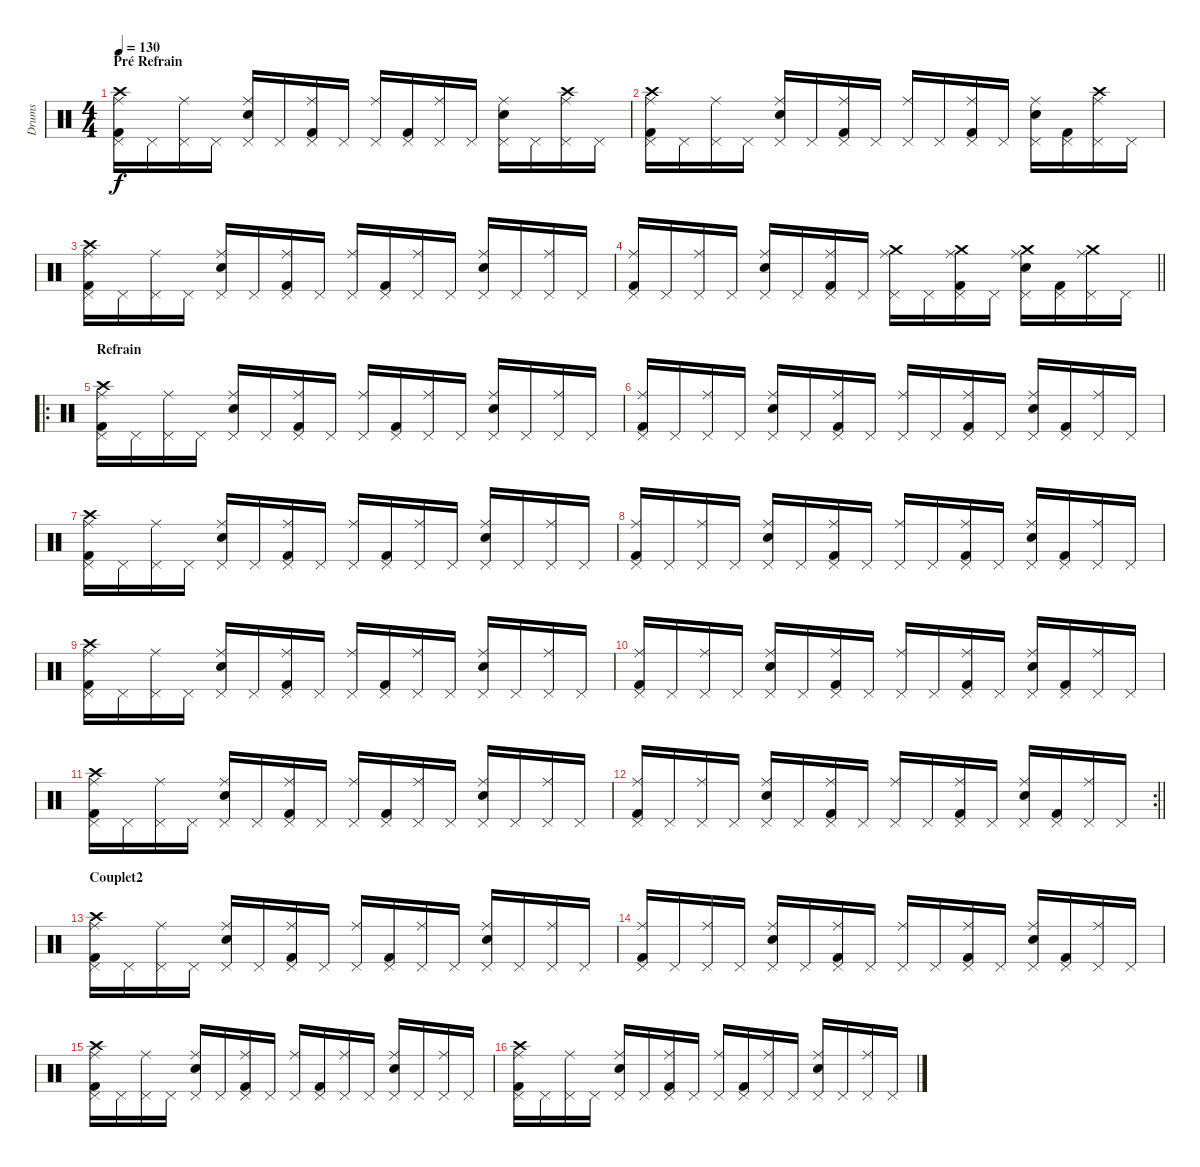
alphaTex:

\track ("Drums" "Drums") {instrument percussion}
\staff {score}
\articulation defaults
\ts (4 4)
\section ("" "Pré Refrain")
\tempo 130
\clef neutral
\ks c
("Crash high (hit)" "Pedal Hi-Hat (hit)" "Ride (middle)" "Kick (hit) 2").16{dy f} "Pedal Hi-Hat (hit)".16 ("Pedal Hi-Hat (hit)" "Ride (middle)").16 "Pedal Hi-Hat (hit)".16 ("Pedal Hi-Hat (hit)" "Ride (middle)" "Electric Snare (hit)").16 "Pedal Hi-Hat (hit)".16 ("Pedal Hi-Hat (hit)" "Ride (middle)" "Kick (hit) 2").16 "Pedal Hi-Hat (hit)".16 ("Pedal Hi-Hat (hit)" "Ride (middle)").16 ("Pedal Hi-Hat (hit)" "Kick (hit) 2").16 ("Pedal Hi-Hat (hit)" "Ride (middle)").16 "Pedal Hi-Hat (hit)".16 ("Pedal Hi-Hat (hit)" "Ride (middle)" "Electric Snare (hit)").16 "Pedal Hi-Hat (hit)".16 ("Crash high (hit)" "Pedal Hi-Hat (hit)" "Ride (middle)").16 "Pedal Hi-Hat (hit)".16 |
("Crash high (hit)" "Ride (middle)" "Pedal Hi-Hat (hit)" "Kick (hit) 2").16 "Pedal Hi-Hat (hit)".16 ("Ride (middle)" "Pedal Hi-Hat (hit)").16 "Pedal Hi-Hat (hit)".16 ("Ride (middle)" "Pedal Hi-Hat (hit)" "Electric Snare (hit)").16 "Pedal Hi-Hat (hit)".16 ("Ride (middle)" "Pedal Hi-Hat (hit)" "Kick (hit) 2").16 "Pedal Hi-Hat (hit)".16 ("Ride (middle)" "Pedal Hi-Hat (hit)").16 "Pedal Hi-Hat (hit)".16 ("Ride (middle)" "Pedal Hi-Hat (hit)" "Kick (hit) 2").16 "Pedal Hi-Hat (hit)".16 ("Ride (middle)" "Pedal Hi-Hat (hit)" "Electric Snare (hit)").16 ("Pedal Hi-Hat (hit)" "Kick (hit) 2").16 ("Crash high (hit)" "Ride (middle)" "Pedal Hi-Hat (hit)").16 "Pedal Hi-Hat (hit)".16 |
("Crash high (hit)" "Pedal Hi-Hat (hit)" "Ride (middle)" "Kick (hit) 2").16 "Pedal Hi-Hat (hit)".16 ("Pedal Hi-Hat (hit)" "Ride (middle)").16 "Pedal Hi-Hat (hit)".16 ("Pedal Hi-Hat (hit)" "Ride (middle)" "Electric Snare (hit)").16 "Pedal Hi-Hat (hit)".16 ("Pedal Hi-Hat (hit)" "Ride (middle)" "Kick (hit) 2").16 "Pedal Hi-Hat (hit)".16 ("Pedal Hi-Hat (hit)" "Ride (middle)").16 ("Pedal Hi-Hat (hit)" "Kick (hit) 2").16 ("Pedal Hi-Hat (hit)" "Ride (middle)").16 "Pedal Hi-Hat (hit)".16 ("Pedal Hi-Hat (hit)" "Ride (middle)" "Electric Snare (hit)").16 "Pedal Hi-Hat (hit)".16 ("Pedal Hi-Hat (hit)" "Ride (middle)").16 "Pedal Hi-Hat (hit)".16 |
\barLineRight lightlight
("Ride (middle)" "Pedal Hi-Hat (hit)" "Kick (hit) 2").16 "Pedal Hi-Hat (hit)".16 ("Ride (middle)" "Pedal Hi-Hat (hit)").16 "Pedal Hi-Hat (hit)".16 ("Ride (middle)" "Pedal Hi-Hat (hit)" "Electric Snare (hit)").16 "Pedal Hi-Hat (hit)".16 ("Ride (middle)" "Pedal Hi-Hat (hit)" "Kick (hit) 2").16 "Pedal Hi-Hat (hit)".16 ("Crash medium (hit)" "Ride (middle)" "Pedal Hi-Hat (hit)").16 "Pedal Hi-Hat (hit)".16 ("Crash medium (hit)" "Ride (middle)" "Pedal Hi-Hat (hit)" "Kick (hit) 2").16 "Pedal Hi-Hat (hit)".16 ("Crash medium (hit)" "Ride (middle)" "Pedal Hi-Hat (hit)" "Electric Snare (hit)").16 ("Pedal Hi-Hat (hit)" "Kick (hit) 2").16 ("Crash medium (hit)" "Ride (middle)" "Pedal Hi-Hat (hit)").16 "Pedal Hi-Hat (hit)".16 |
\ro
\section ("" "Refrain")
("Crash high (hit)" "Pedal Hi-Hat (hit)" "Ride (middle)" "Kick (hit) 2").16 "Pedal Hi-Hat (hit)".16 ("Pedal Hi-Hat (hit)" "Ride (middle)").16 "Pedal Hi-Hat (hit)".16 ("Pedal Hi-Hat (hit)" "Ride (middle)" "Electric Snare (hit)").16 "Pedal Hi-Hat (hit)".16 ("Pedal Hi-Hat (hit)" "Ride (middle)" "Kick (hit) 2").16 "Pedal Hi-Hat (hit)".16 ("Pedal Hi-Hat (hit)" "Ride (middle)").16 ("Pedal Hi-Hat (hit)" "Kick (hit) 2").16 ("Pedal Hi-Hat (hit)" "Ride (middle)").16 "Pedal Hi-Hat (hit)".16 ("Pedal Hi-Hat (hit)" "Ride (middle)" "Electric Snare (hit)").16 "Pedal Hi-Hat (hit)".16 ("Pedal Hi-Hat (hit)" "Ride (middle)").16 "Pedal Hi-Hat (hit)".16 |
("Ride (middle)" "Pedal Hi-Hat (hit)" "Kick (hit) 2").16 "Pedal Hi-Hat (hit)".16 ("Ride (middle)" "Pedal Hi-Hat (hit)").16 "Pedal Hi-Hat (hit)".16 ("Ride (middle)" "Pedal Hi-Hat (hit)" "Electric Snare (hit)").16 "Pedal Hi-Hat (hit)".16 ("Ride (middle)" "Pedal Hi-Hat (hit)" "Kick (hit) 2").16 "Pedal Hi-Hat (hit)".16 ("Ride (middle)" "Pedal Hi-Hat (hit)").16 "Pedal Hi-Hat (hit)".16 ("Ride (middle)" "Pedal Hi-Hat (hit)" "Kick (hit) 2").16 "Pedal Hi-Hat (hit)".16 ("Ride (middle)" "Pedal Hi-Hat (hit)" "Electric Snare (hit)").16 ("Pedal Hi-Hat (hit)" "Kick (hit) 2").16 ("Ride (middle)" "Pedal Hi-Hat (hit)").16 "Pedal Hi-Hat (hit)".16 |
("Crash high (hit)" "Pedal Hi-Hat (hit)" "Ride (middle)" "Kick (hit) 2").16 "Pedal Hi-Hat (hit)".16 ("Pedal Hi-Hat (hit)" "Ride (middle)").16 "Pedal Hi-Hat (hit)".16 ("Pedal Hi-Hat (hit)" "Ride (middle)" "Electric Snare (hit)").16 "Pedal Hi-Hat (hit)".16 ("Pedal Hi-Hat (hit)" "Ride (middle)" "Kick (hit) 2").16 "Pedal Hi-Hat (hit)".16 ("Pedal Hi-Hat (hit)" "Ride (middle)").16 ("Pedal Hi-Hat (hit)" "Kick (hit) 2").16 ("Pedal Hi-Hat (hit)" "Ride (middle)").16 "Pedal Hi-Hat (hit)".16 ("Pedal Hi-Hat (hit)" "Ride (middle)" "Electric Snare (hit)").16 "Pedal Hi-Hat (hit)".16 ("Pedal Hi-Hat (hit)" "Ride (middle)").16 "Pedal Hi-Hat (hit)".16 |
("Ride (middle)" "Pedal Hi-Hat (hit)" "Kick (hit) 2").16 "Pedal Hi-Hat (hit)".16 ("Ride (middle)" "Pedal Hi-Hat (hit)").16 "Pedal Hi-Hat (hit)".16 ("Ride (middle)" "Pedal Hi-Hat (hit)" "Electric Snare (hit)").16 "Pedal Hi-Hat (hit)".16 ("Ride (middle)" "Pedal Hi-Hat (hit)" "Kick (hit) 2").16 "Pedal Hi-Hat (hit)".16 ("Ride (middle)" "Pedal Hi-Hat (hit)").16 "Pedal Hi-Hat (hit)".16 ("Ride (middle)" "Pedal Hi-Hat (hit)" "Kick (hit) 2").16 "Pedal Hi-Hat (hit)".16 ("Ride (middle)" "Pedal Hi-Hat (hit)" "Electric Snare (hit)").16 ("Pedal Hi-Hat (hit)" "Kick (hit) 2").16 ("Ride (middle)" "Pedal Hi-Hat (hit)").16 "Pedal Hi-Hat (hit)".16 |
("Crash high (hit)" "Pedal Hi-Hat (hit)" "Ride (middle)" "Kick (hit) 2").16 "Pedal Hi-Hat (hit)".16 ("Pedal Hi-Hat (hit)" "Ride (middle)").16 "Pedal Hi-Hat (hit)".16 ("Pedal Hi-Hat (hit)" "Ride (middle)" "Electric Snare (hit)").16 "Pedal Hi-Hat (hit)".16 ("Pedal Hi-Hat (hit)" "Ride (middle)" "Kick (hit) 2").16 "Pedal Hi-Hat (hit)".16 ("Pedal Hi-Hat (hit)" "Ride (middle)").16 ("Pedal Hi-Hat (hit)" "Kick (hit) 2").16 ("Pedal Hi-Hat (hit)" "Ride (middle)").16 "Pedal Hi-Hat (hit)".16 ("Pedal Hi-Hat (hit)" "Ride (middle)" "Electric Snare (hit)").16 "Pedal Hi-Hat (hit)".16 ("Pedal Hi-Hat (hit)" "Ride (middle)").16 "Pedal Hi-Hat (hit)".16 |
("Ride (middle)" "Pedal Hi-Hat (hit)" "Kick (hit) 2").16 "Pedal Hi-Hat (hit)".16 ("Ride (middle)" "Pedal Hi-Hat (hit)").16 "Pedal Hi-Hat (hit)".16 ("Ride (middle)" "Pedal Hi-Hat (hit)" "Electric Snare (hit)").16 "Pedal Hi-Hat (hit)".16 ("Ride (middle)" "Pedal Hi-Hat (hit)" "Kick (hit) 2").16 "Pedal Hi-Hat (hit)".16 ("Ride (middle)" "Pedal Hi-Hat (hit)").16 "Pedal Hi-Hat (hit)".16 ("Ride (middle)" "Pedal Hi-Hat (hit)" "Kick (hit) 2").16 "Pedal Hi-Hat (hit)".16 ("Ride (middle)" "Pedal Hi-Hat (hit)" "Electric Snare (hit)").16 ("Pedal Hi-Hat (hit)" "Kick (hit) 2").16 ("Ride (middle)" "Pedal Hi-Hat (hit)").16 "Pedal Hi-Hat (hit)".16 |
("Crash high (hit)" "Pedal Hi-Hat (hit)" "Ride (middle)" "Kick (hit) 2").16 "Pedal Hi-Hat (hit)".16 ("Pedal Hi-Hat (hit)" "Ride (middle)").16 "Pedal Hi-Hat (hit)".16 ("Pedal Hi-Hat (hit)" "Ride (middle)" "Electric Snare (hit)").16 "Pedal Hi-Hat (hit)".16 ("Pedal Hi-Hat (hit)" "Ride (middle)" "Kick (hit) 2").16 "Pedal Hi-Hat (hit)".16 ("Pedal Hi-Hat (hit)" "Ride (middle)").16 ("Pedal Hi-Hat (hit)" "Kick (hit) 2").16 ("Pedal Hi-Hat (hit)" "Ride (middle)").16 "Pedal Hi-Hat (hit)".16 ("Pedal Hi-Hat (hit)" "Ride (middle)" "Electric Snare (hit)").16 "Pedal Hi-Hat (hit)".16 ("Pedal Hi-Hat (hit)" "Ride (middle)").16 "Pedal Hi-Hat (hit)".16 |
\rc 2
\barLineRight lightlight
("Ride (middle)" "Pedal Hi-Hat (hit)" "Kick (hit) 2").16 "Pedal Hi-Hat (hit)".16 ("Ride (middle)" "Pedal Hi-Hat (hit)").16 "Pedal Hi-Hat (hit)".16 ("Ride (middle)" "Pedal Hi-Hat (hit)" "Electric Snare (hit)").16 "Pedal Hi-Hat (hit)".16 ("Ride (middle)" "Pedal Hi-Hat (hit)" "Kick (hit) 2").16 "Pedal Hi-Hat (hit)".16 ("Ride (middle)" "Pedal Hi-Hat (hit)").16 "Pedal Hi-Hat (hit)".16 ("Ride (middle)" "Pedal Hi-Hat (hit)" "Kick (hit) 2").16 "Pedal Hi-Hat (hit)".16 ("Ride (middle)" "Pedal Hi-Hat (hit)" "Electric Snare (hit)").16 ("Pedal Hi-Hat (hit)" "Kick (hit) 2").16 ("Ride (middle)" "Pedal Hi-Hat (hit)").16 "Pedal Hi-Hat (hit)".16 |
\section ("" "Couplet2")
("Crash high (hit)" "Pedal Hi-Hat (hit)" "Ride (middle)" "Kick (hit) 2").16 "Pedal Hi-Hat (hit)".16 ("Pedal Hi-Hat (hit)" "Ride (middle)").16 "Pedal Hi-Hat (hit)".16 ("Pedal Hi-Hat (hit)" "Ride (middle)" "Electric Snare (hit)").16 "Pedal Hi-Hat (hit)".16 ("Pedal Hi-Hat (hit)" "Ride (middle)" "Kick (hit) 2").16 "Pedal Hi-Hat (hit)".16 ("Pedal Hi-Hat (hit)" "Ride (middle)").16 ("Pedal Hi-Hat (hit)" "Kick (hit) 2").16 ("Pedal Hi-Hat (hit)" "Ride (middle)").16 "Pedal Hi-Hat (hit)".16 ("Pedal Hi-Hat (hit)" "Ride (middle)" "Electric Snare (hit)").16 "Pedal Hi-Hat (hit)".16 ("Pedal Hi-Hat (hit)" "Ride (middle)").16 "Pedal Hi-Hat (hit)".16 |
("Ride (middle)" "Pedal Hi-Hat (hit)" "Kick (hit) 2").16 "Pedal Hi-Hat (hit)".16 ("Ride (middle)" "Pedal Hi-Hat (hit)").16 "Pedal Hi-Hat (hit)".16 ("Ride (middle)" "Pedal Hi-Hat (hit)" "Electric Snare (hit)").16 "Pedal Hi-Hat (hit)".16 ("Ride (middle)" "Pedal Hi-Hat (hit)" "Kick (hit) 2").16 "Pedal Hi-Hat (hit)".16 ("Ride (middle)" "Pedal Hi-Hat (hit)").16 "Pedal Hi-Hat (hit)".16 ("Ride (middle)" "Pedal Hi-Hat (hit)" "Kick (hit) 2").16 "Pedal Hi-Hat (hit)".16 ("Ride (middle)" "Pedal Hi-Hat (hit)" "Electric Snare (hit)").16 ("Pedal Hi-Hat (hit)" "Kick (hit) 2").16 ("Ride (middle)" "Pedal Hi-Hat (hit)").16 "Pedal Hi-Hat (hit)".16 |
("Crash high (hit)" "Pedal Hi-Hat (hit)" "Ride (middle)" "Kick (hit) 2").16 "Pedal Hi-Hat (hit)".16 ("Pedal Hi-Hat (hit)" "Ride (middle)").16 "Pedal Hi-Hat (hit)".16 ("Pedal Hi-Hat (hit)" "Ride (middle)" "Electric Snare (hit)").16 "Pedal Hi-Hat (hit)".16 ("Pedal Hi-Hat (hit)" "Ride (middle)" "Kick (hit) 2").16 "Pedal Hi-Hat (hit)".16 ("Pedal Hi-Hat (hit)" "Ride (middle)").16 ("Pedal Hi-Hat (hit)" "Kick (hit) 2").16 ("Pedal Hi-Hat (hit)" "Ride (middle)").16 "Pedal Hi-Hat (hit)".16 ("Pedal Hi-Hat (hit)" "Ride (middle)" "Electric Snare (hit)").16 "Pedal Hi-Hat (hit)".16 ("Pedal Hi-Hat (hit)" "Ride (middle)").16 "Pedal Hi-Hat (hit)".16 |
("Crash high (hit)" "Pedal Hi-Hat (hit)" "Ride (middle)" "Kick (hit) 2").16 "Pedal Hi-Hat (hit)".16 ("Pedal Hi-Hat (hit)" "Ride (middle)").16 "Pedal Hi-Hat (hit)".16 ("Pedal Hi-Hat (hit)" "Ride (middle)" "Electric Snare (hit)").16 "Pedal Hi-Hat (hit)".16 ("Pedal Hi-Hat (hit)" "Ride (middle)" "Kick (hit) 2").16 "Pedal Hi-Hat (hit)".16 ("Pedal Hi-Hat (hit)" "Ride (middle)").16 ("Pedal Hi-Hat (hit)" "Kick (hit) 2").16 ("Pedal Hi-Hat (hit)" "Ride (middle)").16 "Pedal Hi-Hat (hit)".16 ("Pedal Hi-Hat (hit)" "Ride (middle)" "Electric Snare (hit)").16 "Pedal Hi-Hat (hit)".16 ("Pedal Hi-Hat (hit)" "Ride (middle)").16 "Pedal Hi-Hat (hit)".16
